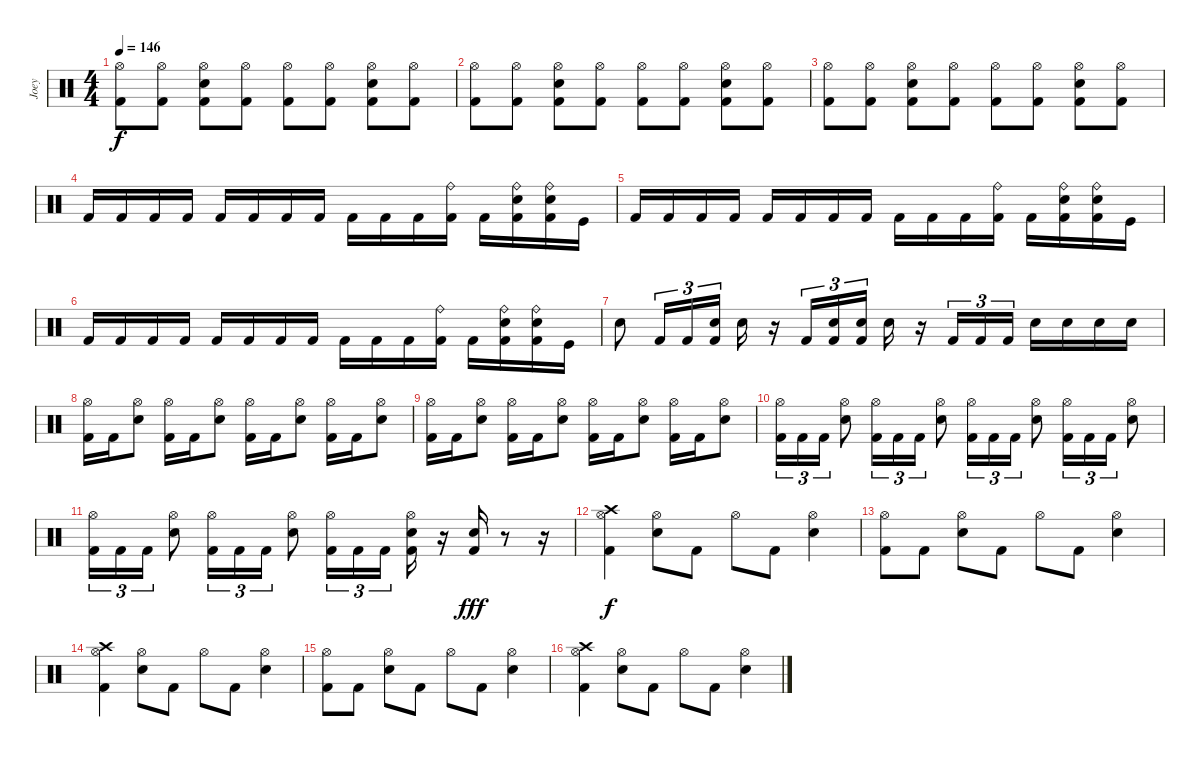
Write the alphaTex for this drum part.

\track ("Joey" "Joey") {instrument percussion}
\staff {score}
\articulation defaults
\ts (4 4)
\tempo 146
\clef neutral
\ks c
("Hi-Hat (open)" "Kick (hit) 2").8{dy f} ("Hi-Hat (open)" "Kick (hit) 2").8 ("Hi-Hat (open)" "Electric Snare (hit)" "Kick (hit) 2").8 ("Hi-Hat (open)" "Kick (hit) 2").8 ("Hi-Hat (open)" "Kick (hit) 2").8 ("Hi-Hat (open)" "Kick (hit) 2").8 ("Hi-Hat (open)" "Electric Snare (hit)" "Kick (hit) 2").8 ("Hi-Hat (open)" "Kick (hit) 2").8 |
("Hi-Hat (open)" "Kick (hit) 2").8 ("Hi-Hat (open)" "Kick (hit) 2").8 ("Hi-Hat (open)" "Electric Snare (hit)" "Kick (hit) 2").8 ("Hi-Hat (open)" "Kick (hit) 2").8 ("Hi-Hat (open)" "Kick (hit) 2").8 ("Hi-Hat (open)" "Kick (hit) 2").8 ("Hi-Hat (open)" "Electric Snare (hit)" "Kick (hit) 2").8 ("Hi-Hat (open)" "Kick (hit) 2").8 |
("Hi-Hat (open)" "Kick (hit) 2").8 ("Hi-Hat (open)" "Kick (hit) 2").8 ("Hi-Hat (open)" "Electric Snare (hit)" "Kick (hit) 2").8 ("Hi-Hat (open)" "Kick (hit) 2").8 ("Hi-Hat (open)" "Kick (hit) 2").8 ("Hi-Hat (open)" "Kick (hit) 2").8 ("Hi-Hat (open)" "Electric Snare (hit)" "Kick (hit) 2").8 ("Hi-Hat (open)" "Kick (hit) 2").8 |
"Kick (hit) 2".16 "Kick (hit) 2".16 "Kick (hit) 2".16 "Kick (hit) 2".16 "Kick (hit) 2".16 "Kick (hit) 2".16 "Kick (hit) 2".16 "Kick (hit) 2".16 "Kick (hit) 2".16 "Kick (hit) 2".16 "Kick (hit) 2".16 ("Ride (bell)" "Kick (hit) 2").16 "Kick (hit) 2".16 ("Ride (bell)" "Electric Snare (hit)" "Kick (hit) 2").16 ("Ride (bell)" "Electric Snare (hit)" "Kick (hit) 2").16 "Kick (hit)".16 |
"Kick (hit) 2".16 "Kick (hit) 2".16 "Kick (hit) 2".16 "Kick (hit) 2".16 "Kick (hit) 2".16 "Kick (hit) 2".16 "Kick (hit) 2".16 "Kick (hit) 2".16 "Kick (hit) 2".16 "Kick (hit) 2".16 "Kick (hit) 2".16 ("Ride (bell)" "Kick (hit) 2").16 "Kick (hit) 2".16 ("Ride (bell)" "Electric Snare (hit)" "Kick (hit) 2").16 ("Ride (bell)" "Electric Snare (hit)" "Kick (hit) 2").16 "Kick (hit)".16 |
"Kick (hit) 2".16 "Kick (hit) 2".16 "Kick (hit) 2".16 "Kick (hit) 2".16 "Kick (hit) 2".16 "Kick (hit) 2".16 "Kick (hit) 2".16 "Kick (hit) 2".16 "Kick (hit) 2".16 "Kick (hit) 2".16 "Kick (hit) 2".16 ("Ride (bell)" "Kick (hit) 2").16 "Kick (hit) 2".16 ("Ride (bell)" "Electric Snare (hit)" "Kick (hit) 2").16 ("Ride (bell)" "Electric Snare (hit)" "Kick (hit) 2").16 "Kick (hit)".16 |
"Electric Snare (hit)".8 "Kick (hit) 2".16{tu (3 2)} "Kick (hit) 2".16{tu (3 2)} ("Snare (hit)" "Kick (hit) 2").16{tu (3 2)} "Electric Snare (hit)".16 r.16 "Kick (hit) 2".16{tu (3 2)} ("Snare (hit)" "Kick (hit) 2").16{tu (3 2)} ("Snare (hit)" "Kick (hit) 2").16{tu (3 2)} "Electric Snare (hit)".16 r.16 "Kick (hit) 2".16{tu (3 2)} "Kick (hit) 2".16{tu (3 2)} "Kick (hit) 2".16{tu (3 2)} "Electric Snare (hit)".16 "Electric Snare (hit)".16 "Electric Snare (hit)".16 "Electric Snare (hit)".16 |
("Hi-Hat (open)" "Kick (hit) 2").16 "Kick (hit) 2".16 ("Hi-Hat (open)" "Electric Snare (hit)").8 ("Hi-Hat (open)" "Kick (hit) 2").16 "Kick (hit) 2".16 ("Hi-Hat (open)" "Electric Snare (hit)").8 ("Hi-Hat (open)" "Kick (hit) 2").16 "Kick (hit) 2".16 ("Hi-Hat (open)" "Electric Snare (hit)").8 ("Hi-Hat (open)" "Kick (hit) 2").16 "Kick (hit) 2".16 ("Hi-Hat (open)" "Electric Snare (hit)").8 |
("Hi-Hat (open)" "Kick (hit) 2").16 "Kick (hit) 2".16 ("Hi-Hat (open)" "Electric Snare (hit)").8 ("Hi-Hat (open)" "Kick (hit) 2").16 "Kick (hit) 2".16 ("Hi-Hat (open)" "Electric Snare (hit)").8 ("Hi-Hat (open)" "Kick (hit) 2").16 "Kick (hit) 2".16 ("Hi-Hat (open)" "Electric Snare (hit)").8 ("Hi-Hat (open)" "Kick (hit) 2").16 "Kick (hit) 2".16 ("Hi-Hat (open)" "Electric Snare (hit)").8 |
("Hi-Hat (open)" "Kick (hit) 2").16{tu (3 2)} "Kick (hit) 2".16{tu (3 2)} "Kick (hit) 2".16{tu (3 2)} ("Hi-Hat (open)" "Electric Snare (hit)").8 ("Hi-Hat (open)" "Kick (hit) 2").16{tu (3 2)} "Kick (hit) 2".16{tu (3 2)} "Kick (hit) 2".16{tu (3 2)} ("Hi-Hat (open)" "Electric Snare (hit)").8 ("Hi-Hat (open)" "Kick (hit) 2").16{tu (3 2)} "Kick (hit) 2".16{tu (3 2)} "Kick (hit) 2".16{tu (3 2)} ("Hi-Hat (open)" "Electric Snare (hit)").8 ("Hi-Hat (open)" "Kick (hit) 2").16{tu (3 2)} "Kick (hit) 2".16{tu (3 2)} "Kick (hit) 2".16{tu (3 2)} ("Hi-Hat (open)" "Electric Snare (hit)").8 |
("Hi-Hat (open)" "Kick (hit) 2").16{tu (3 2)} "Kick (hit) 2".16{tu (3 2)} "Kick (hit) 2".16{tu (3 2)} ("Hi-Hat (open)" "Electric Snare (hit)").8 ("Hi-Hat (open)" "Kick (hit) 2").16{tu (3 2)} "Kick (hit) 2".16{tu (3 2)} "Kick (hit) 2".16{tu (3 2)} ("Hi-Hat (open)" "Electric Snare (hit)").8 ("Hi-Hat (open)" "Kick (hit) 2").16{tu (3 2)} "Kick (hit) 2".16{tu (3 2)} "Kick (hit) 2".16{tu (3 2) beam splitsecondary} ("Hi-Hat (open)" "Kick (hit) 2" "Electric Snare (hit)").16 r.16 ("Electric Snare (hit)" "Kick (hit) 2").16{dy fff} r.8 r.16 |
("Hi-Hat (open)" "Crash high (hit)" "Kick (hit) 2").4{dy f} ("Hi-Hat (open)" "Electric Snare (hit)").8 "Kick (hit) 2".8 "Hi-Hat (open)".8 "Kick (hit) 2".8 ("Hi-Hat (open)" "Electric Snare (hit)").4 |
("Hi-Hat (open)" "Kick (hit) 2").8 "Kick (hit) 2".8 ("Hi-Hat (open)" "Electric Snare (hit)").8 "Kick (hit) 2".8 "Hi-Hat (open)".8 "Kick (hit) 2".8 ("Hi-Hat (open)" "Electric Snare (hit)").4 |
("Hi-Hat (open)" "Crash high (hit)" "Kick (hit) 2").4 ("Hi-Hat (open)" "Electric Snare (hit)").8 "Kick (hit) 2".8 "Hi-Hat (open)".8 "Kick (hit) 2".8 ("Hi-Hat (open)" "Electric Snare (hit)").4 |
("Hi-Hat (open)" "Kick (hit) 2").8 "Kick (hit) 2".8 ("Hi-Hat (open)" "Electric Snare (hit)").8 "Kick (hit) 2".8 "Hi-Hat (open)".8 "Kick (hit) 2".8 ("Hi-Hat (open)" "Electric Snare (hit)").4 |
("Hi-Hat (open)" "Crash high (hit)" "Kick (hit) 2").4 ("Hi-Hat (open)" "Electric Snare (hit)").8 "Kick (hit) 2".8 "Hi-Hat (open)".8 "Kick (hit) 2".8 ("Hi-Hat (open)" "Electric Snare (hit)").4
